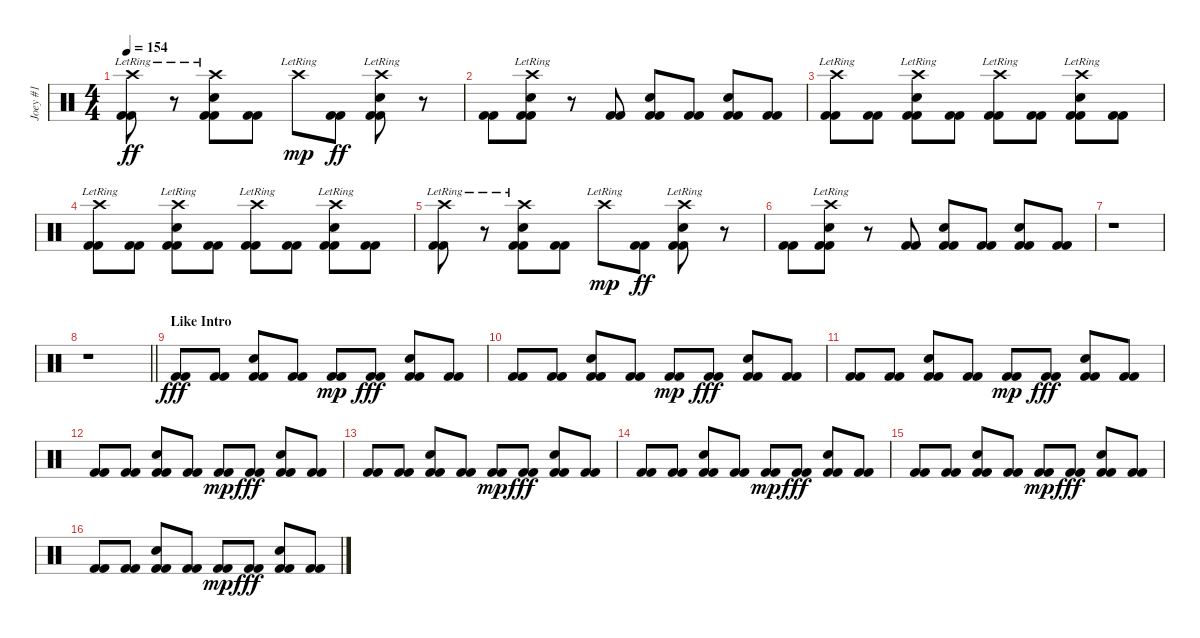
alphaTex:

\track ("Joey #1" "Joey #1") {instrument percussion}
\staff {score}
\articulation defaults
\ts (4 4)
\tempo 154
\clef neutral
\ks c
("Crash high (hit)"{lr} "Kick (hit) 2" "Kick (hit) 2").8{dy ff} r.8 ("Crash high (hit)"{lr} "Snare (hit) 2" "Kick (hit) 2" "Kick (hit) 2").8 ("Kick (hit) 2" "Kick (hit) 2").8 "Crash high (hit)"{lr}.8{dy mp} ("Kick (hit) 2" "Kick (hit) 2").8{dy ff} ("Crash high (hit)"{lr} "Snare (hit) 2" "Kick (hit) 2" "Kick (hit) 2").8 r.8 |
("Kick (hit) 2" "Kick (hit) 2").8 ("Crash high (hit)"{lr} "Snare (hit) 2" "Kick (hit) 2" "Kick (hit) 2").8 r.8 ("Kick (hit) 2" "Kick (hit) 2").8 ("Snare (hit) 2" "Kick (hit) 2" "Kick (hit) 2").8 ("Kick (hit) 2" "Kick (hit) 2").8 ("Snare (hit) 2" "Kick (hit) 2" "Kick (hit) 2").8 ("Kick (hit) 2" "Kick (hit) 2").8 |
("Crash high (hit)"{lr} "Kick (hit) 2" "Kick (hit) 2").8 ("Kick (hit) 2" "Kick (hit) 2").8 ("Crash high (hit)"{lr} "Snare (hit) 2" "Kick (hit) 2" "Kick (hit) 2").8 ("Kick (hit) 2" "Kick (hit) 2").8 ("Crash high (hit)"{lr} "Kick (hit) 2" "Kick (hit) 2").8 ("Kick (hit) 2" "Kick (hit) 2").8 ("Crash high (hit)"{lr} "Snare (hit) 2" "Kick (hit) 2" "Kick (hit) 2").8 ("Kick (hit) 2" "Kick (hit) 2").8 |
("Crash high (hit)"{lr} "Kick (hit) 2" "Kick (hit) 2").8 ("Kick (hit) 2" "Kick (hit) 2").8 ("Crash high (hit)"{lr} "Snare (hit) 2" "Kick (hit) 2" "Kick (hit) 2").8 ("Kick (hit) 2" "Kick (hit) 2").8 ("Crash high (hit)"{lr} "Kick (hit) 2" "Kick (hit) 2").8 ("Kick (hit) 2" "Kick (hit) 2").8 ("Crash high (hit)"{lr} "Snare (hit) 2" "Kick (hit) 2" "Kick (hit) 2").8 ("Kick (hit) 2" "Kick (hit) 2").8 |
("Crash high (hit)"{lr} "Kick (hit) 2" "Kick (hit) 2").8 r.8 ("Crash high (hit)"{lr} "Snare (hit) 2" "Kick (hit) 2" "Kick (hit) 2").8 ("Kick (hit) 2" "Kick (hit) 2").8 "Crash high (hit)"{lr}.8{dy mp} ("Kick (hit) 2" "Kick (hit) 2").8{dy ff} ("Crash high (hit)"{lr} "Snare (hit) 2" "Kick (hit) 2" "Kick (hit) 2").8 r.8 |
("Kick (hit) 2" "Kick (hit) 2").8 ("Crash high (hit)"{lr} "Snare (hit) 2" "Kick (hit) 2" "Kick (hit) 2").8 r.8 ("Kick (hit) 2" "Kick (hit) 2").8 ("Snare (hit) 2" "Kick (hit) 2" "Kick (hit) 2").8 ("Kick (hit) 2" "Kick (hit) 2").8 ("Snare (hit) 2" "Kick (hit) 2" "Kick (hit) 2").8 ("Kick (hit) 2" "Kick (hit) 2").8 |
r.1 |
\barLineRight lightlight
r.1 |
\section ("" "Like Intro")
("Kick (hit) 2" "Kick (hit) 2").8{dy fff} ("Kick (hit) 2" "Kick (hit) 2").8 ("Snare (hit) 2" "Kick (hit) 2" "Kick (hit) 2").8 ("Kick (hit) 2" "Kick (hit) 2").8 ("Kick (hit) 2" "Kick (hit) 2").8{dy mp} ("Kick (hit) 2" "Kick (hit) 2").8{dy fff} ("Snare (hit) 2" "Kick (hit) 2" "Kick (hit) 2").8 ("Kick (hit) 2" "Kick (hit) 2").8 |
("Kick (hit) 2" "Kick (hit) 2").8 ("Kick (hit) 2" "Kick (hit) 2").8 ("Snare (hit) 2" "Kick (hit) 2" "Kick (hit) 2").8 ("Kick (hit) 2" "Kick (hit) 2").8 ("Kick (hit) 2" "Kick (hit) 2").8{dy mp} ("Kick (hit) 2" "Kick (hit) 2").8{dy fff} ("Snare (hit) 2" "Kick (hit) 2" "Kick (hit) 2").8 ("Kick (hit) 2" "Kick (hit) 2").8 |
("Kick (hit) 2" "Kick (hit) 2").8 ("Kick (hit) 2" "Kick (hit) 2").8 ("Snare (hit) 2" "Kick (hit) 2" "Kick (hit) 2").8 ("Kick (hit) 2" "Kick (hit) 2").8 ("Kick (hit) 2" "Kick (hit) 2").8{dy mp} ("Kick (hit) 2" "Kick (hit) 2").8{dy fff} ("Snare (hit) 2" "Kick (hit) 2" "Kick (hit) 2").8 ("Kick (hit) 2" "Kick (hit) 2").8 |
("Kick (hit) 2" "Kick (hit) 2").8 ("Kick (hit) 2" "Kick (hit) 2").8 ("Snare (hit) 2" "Kick (hit) 2" "Kick (hit) 2").8 ("Kick (hit) 2" "Kick (hit) 2").8 ("Kick (hit) 2" "Kick (hit) 2").8{dy mp} ("Kick (hit) 2" "Kick (hit) 2").8{dy fff} ("Snare (hit) 2" "Kick (hit) 2" "Kick (hit) 2").8 ("Kick (hit) 2" "Kick (hit) 2").8 |
("Kick (hit) 2" "Kick (hit) 2").8 ("Kick (hit) 2" "Kick (hit) 2").8 ("Snare (hit) 2" "Kick (hit) 2" "Kick (hit) 2").8 ("Kick (hit) 2" "Kick (hit) 2").8 ("Kick (hit) 2" "Kick (hit) 2").8{dy mp} ("Kick (hit) 2" "Kick (hit) 2").8{dy fff} ("Snare (hit) 2" "Kick (hit) 2" "Kick (hit) 2").8 ("Kick (hit) 2" "Kick (hit) 2").8 |
("Kick (hit) 2" "Kick (hit) 2").8 ("Kick (hit) 2" "Kick (hit) 2").8 ("Snare (hit) 2" "Kick (hit) 2" "Kick (hit) 2").8 ("Kick (hit) 2" "Kick (hit) 2").8 ("Kick (hit) 2" "Kick (hit) 2").8{dy mp} ("Kick (hit) 2" "Kick (hit) 2").8{dy fff} ("Snare (hit) 2" "Kick (hit) 2" "Kick (hit) 2").8 ("Kick (hit) 2" "Kick (hit) 2").8 |
("Kick (hit) 2" "Kick (hit) 2").8 ("Kick (hit) 2" "Kick (hit) 2").8 ("Snare (hit) 2" "Kick (hit) 2" "Kick (hit) 2").8 ("Kick (hit) 2" "Kick (hit) 2").8 ("Kick (hit) 2" "Kick (hit) 2").8{dy mp} ("Kick (hit) 2" "Kick (hit) 2").8{dy fff} ("Snare (hit) 2" "Kick (hit) 2" "Kick (hit) 2").8 ("Kick (hit) 2" "Kick (hit) 2").8 |
("Kick (hit) 2" "Kick (hit) 2").8 ("Kick (hit) 2" "Kick (hit) 2").8 ("Snare (hit) 2" "Kick (hit) 2" "Kick (hit) 2").8 ("Kick (hit) 2" "Kick (hit) 2").8 ("Kick (hit) 2" "Kick (hit) 2").8{dy mp} ("Kick (hit) 2" "Kick (hit) 2").8{dy fff} ("Snare (hit) 2" "Kick (hit) 2" "Kick (hit) 2").8 ("Kick (hit) 2" "Kick (hit) 2").8
